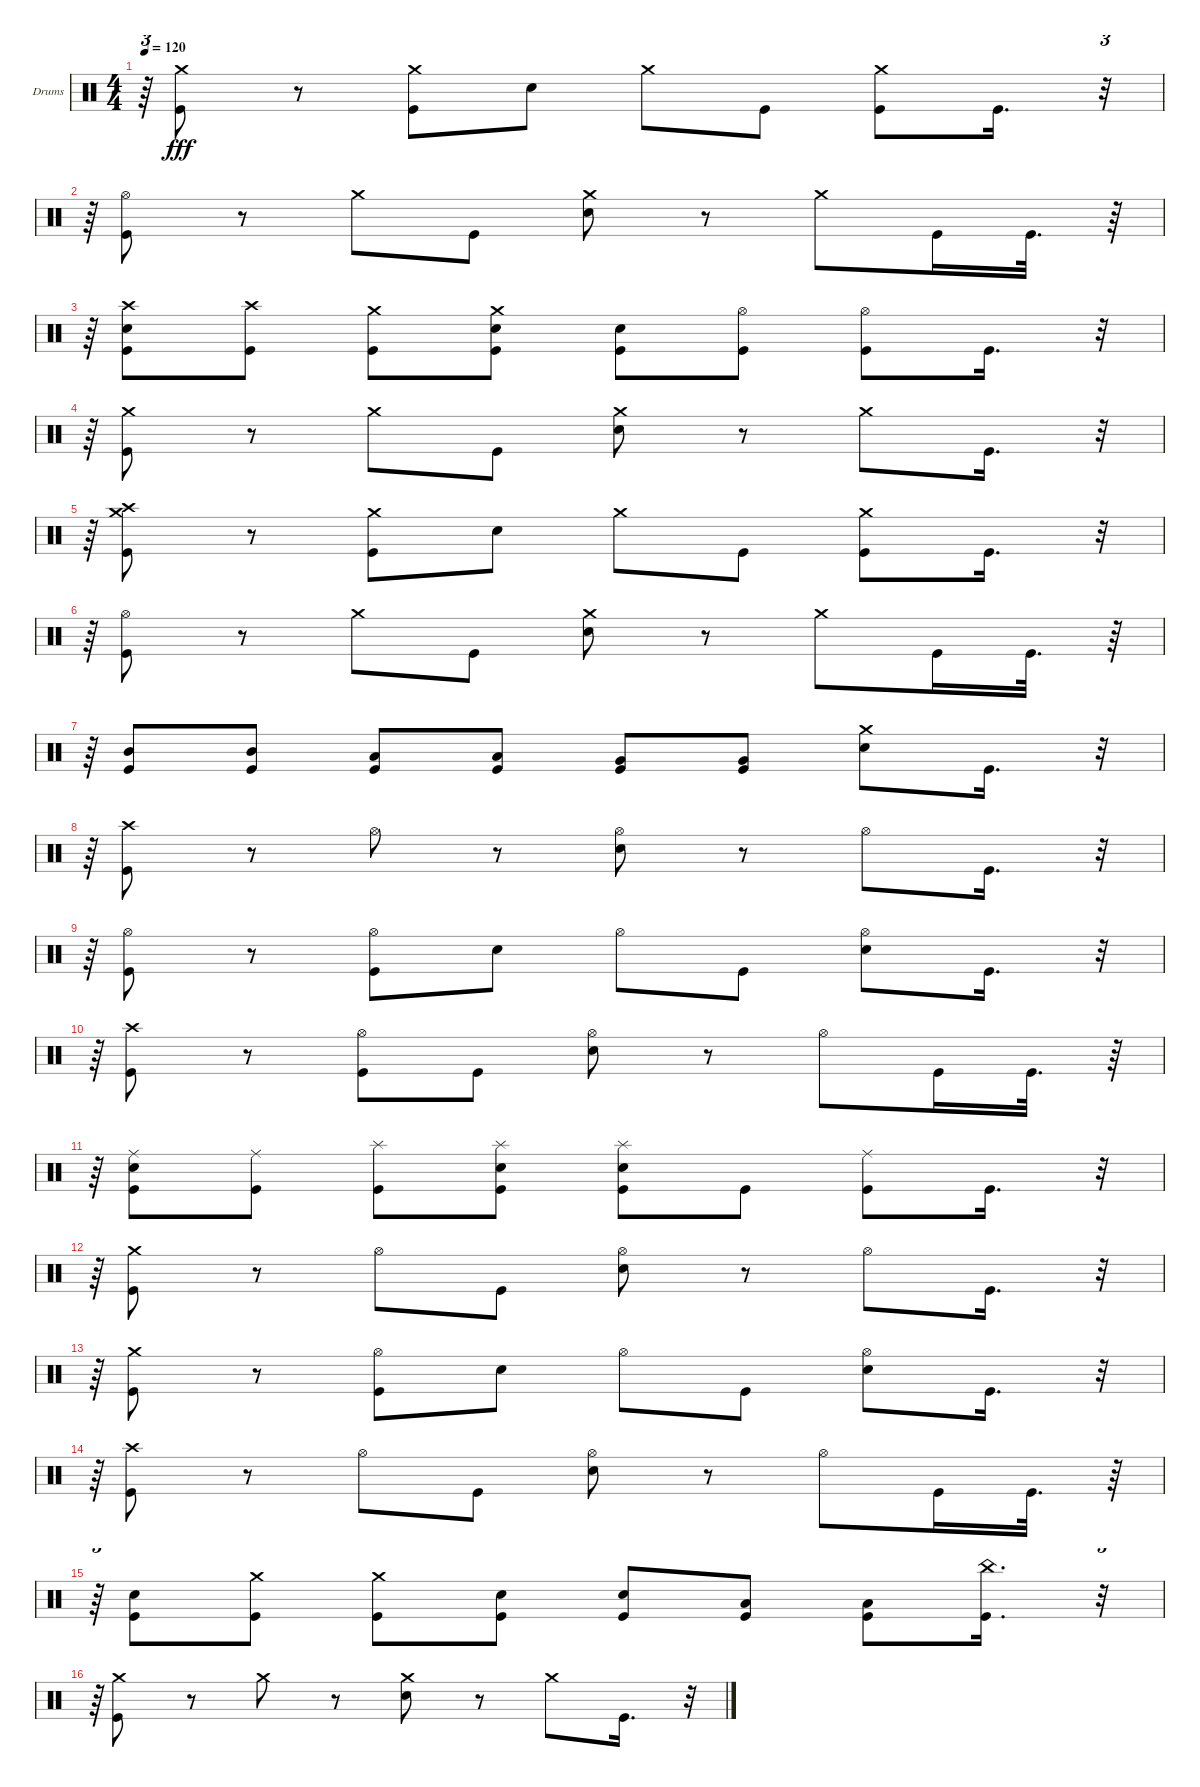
\bracketExtendMode groupsimilarinstruments
\firstSystemTrackNameOrientation horizontal
\otherSystemsTrackNameOrientation horizontal
\track ("Drums" "Drums") {instrument percussion}
\staff {score}
\articulation defaults
\ts (4 4)
\tempo 120
\clef neutral
\ks c
r.64{tu (3 2) dy fff} ("Kick (hit)" "Crash medium (hit)").8 r.8 ("Kick (hit)" "Crash medium (hit)").8 "Snare (hit) 2".8 "Crash medium (hit)".8 "Kick (hit)".8 ("Kick (hit)" "Crash medium (hit)").8 "Kick (hit)".16{d} r.32{tu (3 2)} |
r.64{tu (3 2)} ("Kick (hit)" "Hi-Hat (open)").8 r.8 "Crash medium (hit)".8 "Kick (hit)".8 ("Snare (hit) 2" "Crash medium (hit)").8 r.8 "Crash medium (hit)".8 "Kick (hit)".16 "Kick (hit)".32{d} r.64 |
r.64{tu (3 2)} ("Kick (hit)" "Crash high (hit)" "Snare (hit) 2").8 ("Kick (hit)" "Crash high (hit)").8 ("Kick (hit)" "Crash medium (hit)").8 ("Kick (hit)" "Crash medium (hit)" "Snare (hit) 2").8 ("Kick (hit)" "Snare (hit) 2").8 ("Hi-Hat (open)" "Kick (hit)").8 ("Hi-Hat (open)" "Kick (hit)").8 "Kick (hit)".16{d} r.32{tu (3 2)} |
r.64{tu (3 2)} ("Kick (hit)" "Crash medium (hit)").8 r.8 "Crash medium (hit)".8 "Kick (hit)".8 ("Snare (hit) 2" "Crash medium (hit)").8 r.8 "Crash medium (hit)".8 "Kick (hit)".16{d} r.32{tu (3 2)} |
r.64{tu (3 2)} ("Kick (hit)" "Crash medium (hit)" "Crash high (hit)").8 r.8 ("Kick (hit)" "Crash medium (hit)").8 "Snare (hit) 2".8 "Crash medium (hit)".8 "Kick (hit)".8 ("Kick (hit)" "Crash medium (hit)").8 "Kick (hit)".16{d} r.32{tu (3 2)} |
r.64{tu (3 2)} ("Hi-Hat (open)" "Kick (hit)").8 r.8 "Crash medium (hit)".8 "Kick (hit)".8 ("Crash medium (hit)" "Snare (hit) 2").8 r.8 "Crash medium (hit)".8 "Kick (hit)".16 "Kick (hit)".32{d} r.64 |
r.64{tu (3 2)} ("Kick (hit)" "Mid Tom (hit)").8 ("Kick (hit)" "Mid Tom (hit)").8 ("Kick (hit)" "Low Tom (hit)").8 ("Kick (hit)" "Low Tom (hit)").8 ("Very Low Tom (hit)" "Kick (hit)").8 ("Very Low Tom (hit)" "Kick (hit)").8 ("Crash medium (hit)" "Snare (hit) 2").8 "Kick (hit)".16{d} r.32{tu (3 2)} |
r.64{tu (3 2)} ("Kick (hit)" "Crash high (hit)").8 r.8 "Hi-Hat (open)".8 r.8 ("Snare (hit) 2" "Hi-Hat (open)").8 r.8 "Hi-Hat (open)".8 "Kick (hit)".16{d} r.32{tu (3 2)} |
r.64{tu (3 2)} ("Kick (hit)" "Hi-Hat (open)").8 r.8 ("Hi-Hat (open)" "Kick (hit)").8 "Snare (hit) 2".8 "Hi-Hat (open)".8 "Kick (hit)".8 ("Snare (hit) 2" "Hi-Hat (open)").8 "Kick (hit)".16{d} r.32{tu (3 2)} |
r.64{tu (3 2)} ("Kick (hit)" "Crash high (hit)").8 r.8 ("Hi-Hat (open)" "Kick (hit)").8 "Kick (hit)".8 ("Snare (hit) 2" "Hi-Hat (open)").8 r.8 "Hi-Hat (open)".8 "Kick (hit)".16 "Kick (hit)".32{d} r.64 |
r.64{tu (3 2)} ("Kick (hit)" "Ride (middle)" "Snare (hit) 2").8 ("Kick (hit)" "Ride (middle)").8 ("Kick (hit)" "Splash (hit)").8 ("Kick (hit)" "Splash (hit)" "Snare (hit) 2").8 ("Kick (hit)" "Snare (hit) 2" "Splash (hit)").8 "Kick (hit)".8 ("Kick (hit)" "Ride (middle)").8 "Kick (hit)".16{d} r.32{tu (3 2)} |
r.64{tu (3 2)} ("Kick (hit)" "Crash medium (hit)").8 r.8 "Hi-Hat (open)".8 "Kick (hit)".8 ("Snare (hit) 2" "Hi-Hat (open)").8 r.8 "Hi-Hat (open)".8 "Kick (hit)".16{d} r.32{tu (3 2)} |
r.64{tu (3 2)} ("Kick (hit)" "Crash medium (hit)").8 r.8 ("Kick (hit)" "Hi-Hat (open)").8 "Snare (hit) 2".8 "Hi-Hat (open)".8 "Kick (hit)".8 ("Snare (hit) 2" "Hi-Hat (open)").8 "Kick (hit)".16{d} r.32{tu (3 2)} |
r.64{tu (3 2)} ("Kick (hit)" "Crash high (hit)").8 r.8 "Hi-Hat (open)".8 "Kick (hit)".8 ("Snare (hit) 2" "Hi-Hat (open)").8 r.8 "Hi-Hat (open)".8 "Kick (hit)".16 "Kick (hit)".32{d} r.64 |
r.64{tu (3 2)} ("Snare (hit) 2" "Kick (hit)").8 ("Crash medium (hit)" "Kick (hit)").8 ("Crash medium (hit)" "Kick (hit)").8 ("Snare (hit) 2" "Kick (hit)").8 ("Snare (hit) 2" "Kick (hit)").8 ("Low Tom (hit)" "Kick (hit)").8 ("Low Tom (hit)" "Kick (hit)").8 ("China (hit)" "Kick (hit)").16{d} r.32{tu (3 2)} |
r.64{tu (3 2)} ("Crash medium (hit)" "Kick (hit)").8 r.8 "Crash medium (hit)".8 r.8 ("Crash medium (hit)" "Snare (hit) 2").8 r.8 "Crash medium (hit)".8 "Kick (hit)".16{d} r.32{tu (3 2)}
